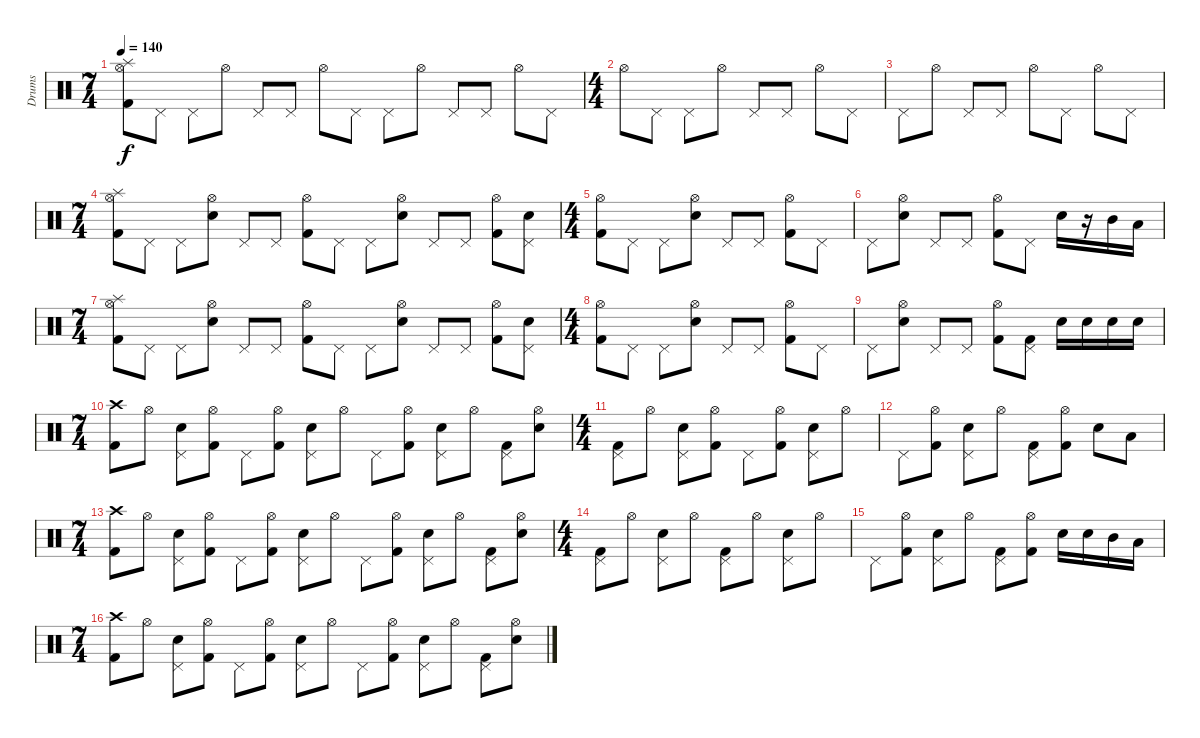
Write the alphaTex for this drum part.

\track ("Drums" "Drums") {instrument percussion}
\staff {score}
\articulation defaults
\ts (7 4)
\tempo 140
\clef neutral
\ks c
("Splash (hit)" "Hi-Hat (open)" "Kick (hit) 2").8{dy f} "Pedal Hi-Hat (hit)".8 "Pedal Hi-Hat (hit)".8 "Hi-Hat (open)".8 "Pedal Hi-Hat (hit)".8 "Pedal Hi-Hat (hit)".8 "Hi-Hat (open)".8 "Pedal Hi-Hat (hit)".8 "Pedal Hi-Hat (hit)".8 "Hi-Hat (open)".8 "Pedal Hi-Hat (hit)".8 "Pedal Hi-Hat (hit)".8 "Hi-Hat (open)".8 "Pedal Hi-Hat (hit)".8 |
\ts (4 4)
"Hi-Hat (open)".8 "Pedal Hi-Hat (hit)".8 "Pedal Hi-Hat (hit)".8 "Hi-Hat (open)".8 "Pedal Hi-Hat (hit)".8 "Pedal Hi-Hat (hit)".8 "Hi-Hat (open)".8 "Pedal Hi-Hat (hit)".8 |
"Pedal Hi-Hat (hit)".8 "Hi-Hat (open)".8 "Pedal Hi-Hat (hit)".8 "Pedal Hi-Hat (hit)".8 "Hi-Hat (open)".8 "Pedal Hi-Hat (hit)".8 "Hi-Hat (open)".8 "Pedal Hi-Hat (hit)".8 |
\ts (7 4)
("Splash (hit)" "Hi-Hat (open)" "Kick (hit) 2").8 "Pedal Hi-Hat (hit)".8 "Pedal Hi-Hat (hit)".8 ("Hi-Hat (open)" "Electric Snare (hit)").8 "Pedal Hi-Hat (hit)".8 "Pedal Hi-Hat (hit)".8 ("Hi-Hat (open)" "Kick (hit) 2").8 "Pedal Hi-Hat (hit)".8 "Pedal Hi-Hat (hit)".8 ("Hi-Hat (open)" "Electric Snare (hit)").8 "Pedal Hi-Hat (hit)".8 "Pedal Hi-Hat (hit)".8 ("Hi-Hat (open)" "Kick (hit) 2").8 ("Pedal Hi-Hat (hit)" "Electric Snare (hit)").8 |
\ts (4 4)
("Hi-Hat (open)" "Kick (hit) 2").8 "Pedal Hi-Hat (hit)".8 "Pedal Hi-Hat (hit)".8 ("Hi-Hat (open)" "Electric Snare (hit)").8 "Pedal Hi-Hat (hit)".8 "Pedal Hi-Hat (hit)".8 ("Hi-Hat (open)" "Kick (hit) 2").8 "Pedal Hi-Hat (hit)".8 |
"Pedal Hi-Hat (hit)".8 ("Hi-Hat (open)" "Electric Snare (hit)").8 "Pedal Hi-Hat (hit)".8 "Pedal Hi-Hat (hit)".8 ("Hi-Hat (open)" "Kick (hit) 2").8 "Pedal Hi-Hat (hit)".8 "Electric Snare (hit)".16 r.16 "Mid Tom (hit)".16 "Low Tom (hit)".16 |
\ts (7 4)
("Splash (hit)" "Hi-Hat (open)" "Kick (hit) 2").8 "Pedal Hi-Hat (hit)".8 "Pedal Hi-Hat (hit)".8 ("Hi-Hat (open)" "Electric Snare (hit)").8 "Pedal Hi-Hat (hit)".8 "Pedal Hi-Hat (hit)".8 ("Hi-Hat (open)" "Kick (hit) 2").8 "Pedal Hi-Hat (hit)".8 "Pedal Hi-Hat (hit)".8 ("Hi-Hat (open)" "Electric Snare (hit)").8 "Pedal Hi-Hat (hit)".8 "Pedal Hi-Hat (hit)".8 ("Hi-Hat (open)" "Kick (hit) 2").8 ("Pedal Hi-Hat (hit)" "Electric Snare (hit)").8 |
\ts (4 4)
("Hi-Hat (open)" "Kick (hit) 2").8 "Pedal Hi-Hat (hit)".8 "Pedal Hi-Hat (hit)".8 ("Hi-Hat (open)" "Electric Snare (hit)").8 "Pedal Hi-Hat (hit)".8 "Pedal Hi-Hat (hit)".8 ("Hi-Hat (open)" "Kick (hit) 2").8 "Pedal Hi-Hat (hit)".8 |
"Pedal Hi-Hat (hit)".8 ("Hi-Hat (open)" "Electric Snare (hit)").8 "Pedal Hi-Hat (hit)".8 "Pedal Hi-Hat (hit)".8 ("Hi-Hat (open)" "Kick (hit) 2").8 ("Pedal Hi-Hat (hit)" "Kick (hit) 2").8 "Electric Snare (hit)".16 "Electric Snare (hit)".16 "Electric Snare (hit)".16 "Electric Snare (hit)".16 |
\ts (7 4)
("Crash high (hit)" "Kick (hit) 2").8 "Hi-Hat (open)".8 ("Pedal Hi-Hat (hit)" "Electric Snare (hit)").8 ("Hi-Hat (open)" "Kick (hit) 2").8 "Pedal Hi-Hat (hit)".8 ("Hi-Hat (open)" "Kick (hit) 2").8 ("Pedal Hi-Hat (hit)" "Electric Snare (hit)").8 "Hi-Hat (open)".8 "Pedal Hi-Hat (hit)".8 ("Hi-Hat (open)" "Kick (hit) 2").8 ("Pedal Hi-Hat (hit)" "Electric Snare (hit)").8 "Hi-Hat (open)".8 ("Pedal Hi-Hat (hit)" "Kick (hit) 2").8 ("Hi-Hat (open)" "Electric Snare (hit)").8 |
\ts (4 4)
("Pedal Hi-Hat (hit)" "Kick (hit) 2").8 "Hi-Hat (open)".8 ("Pedal Hi-Hat (hit)" "Electric Snare (hit)").8 ("Hi-Hat (open)" "Kick (hit) 2").8 "Pedal Hi-Hat (hit)".8 ("Hi-Hat (open)" "Kick (hit) 2").8 ("Pedal Hi-Hat (hit)" "Electric Snare (hit)").8 "Hi-Hat (open)".8 |
"Pedal Hi-Hat (hit)".8 ("Hi-Hat (open)" "Kick (hit) 2").8 ("Pedal Hi-Hat (hit)" "Electric Snare (hit)").8 "Hi-Hat (open)".8 ("Pedal Hi-Hat (hit)" "Kick (hit) 2").8 ("Hi-Hat (open)" "Kick (hit) 2").8 "Electric Snare (hit)".8 "Low Tom (hit)".8 |
\ts (7 4)
("Crash high (hit)" "Kick (hit) 2").8 "Hi-Hat (open)".8 ("Pedal Hi-Hat (hit)" "Electric Snare (hit)").8 ("Hi-Hat (open)" "Kick (hit) 2").8 "Pedal Hi-Hat (hit)".8 ("Hi-Hat (open)" "Kick (hit) 2").8 ("Pedal Hi-Hat (hit)" "Electric Snare (hit)").8 "Hi-Hat (open)".8 "Pedal Hi-Hat (hit)".8 ("Hi-Hat (open)" "Kick (hit) 2").8 ("Pedal Hi-Hat (hit)" "Electric Snare (hit)").8 "Hi-Hat (open)".8 ("Pedal Hi-Hat (hit)" "Kick (hit) 2").8 ("Hi-Hat (open)" "Electric Snare (hit)").8 |
\ts (4 4)
("Pedal Hi-Hat (hit)" "Kick (hit) 2").8 "Hi-Hat (open)".8 ("Pedal Hi-Hat (hit)" "Electric Snare (hit)").8 "Hi-Hat (open)".8 ("Pedal Hi-Hat (hit)" "Kick (hit) 2").8 "Hi-Hat (open)".8 ("Pedal Hi-Hat (hit)" "Electric Snare (hit)").8 "Hi-Hat (open)".8 |
"Pedal Hi-Hat (hit)".8 ("Hi-Hat (open)" "Kick (hit) 2").8 ("Pedal Hi-Hat (hit)" "Electric Snare (hit)").8 "Hi-Hat (open)".8 ("Pedal Hi-Hat (hit)" "Kick (hit) 2").8 ("Hi-Hat (open)" "Kick (hit) 2").8 "Electric Snare (hit)".16 "Electric Snare (hit)".16 "Mid Tom (hit)".16 "Low Tom (hit)".16 |
\ts (7 4)
("Crash high (hit)" "Kick (hit) 2").8 "Hi-Hat (open)".8 ("Pedal Hi-Hat (hit)" "Electric Snare (hit)").8 ("Hi-Hat (open)" "Kick (hit) 2").8 "Pedal Hi-Hat (hit)".8 ("Hi-Hat (open)" "Kick (hit) 2").8 ("Pedal Hi-Hat (hit)" "Electric Snare (hit)").8 "Hi-Hat (open)".8 "Pedal Hi-Hat (hit)".8 ("Hi-Hat (open)" "Kick (hit) 2").8 ("Pedal Hi-Hat (hit)" "Electric Snare (hit)").8 "Hi-Hat (open)".8 ("Pedal Hi-Hat (hit)" "Kick (hit) 2").8 ("Hi-Hat (open)" "Electric Snare (hit)").8
